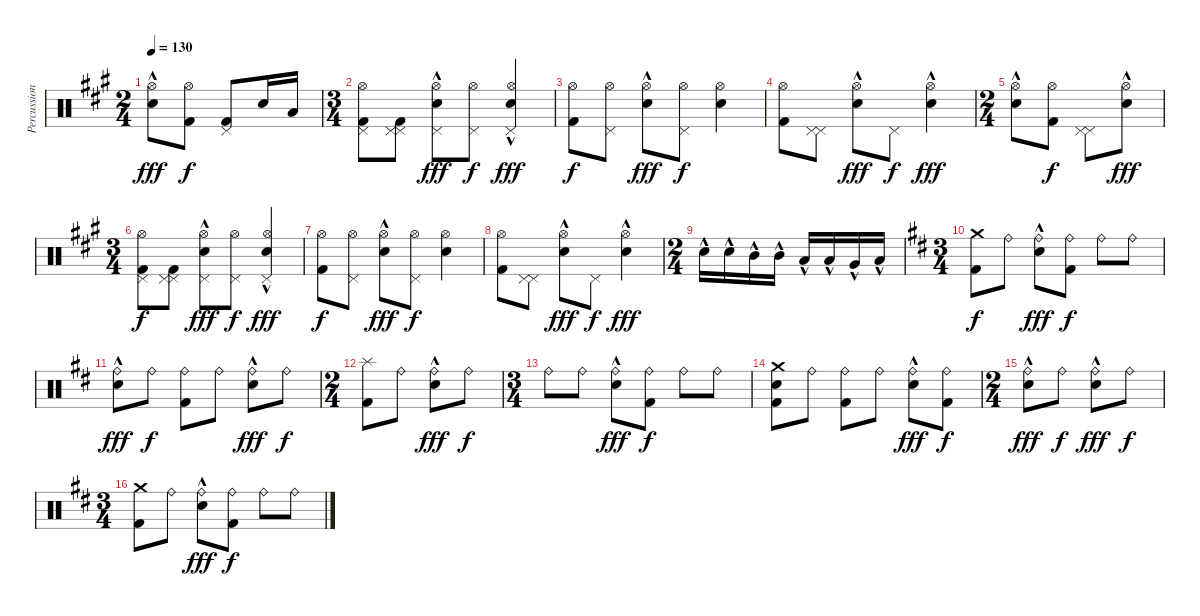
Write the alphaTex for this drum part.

\track ("Percussion" "Percussion") {instrument percussion bank 110}
\staff {score}
\articulation defaults
\ts (2 4)
\tempo 130
\clef neutral
\ks a
("Electric Snare (hit)"{hac} "Hi-Hat (open)").8{dy fff} ("Kick (hit) 2" "Hi-Hat (open)").8{dy f} ("Kick (hit) 2" "Pedal Hi-Hat (hit)").8 "Electric Snare (hit)".16 "Low Tom (hit)".16 |
\ts (3 4)
("Hi-Hat (open)" "Kick (hit) 2" "Pedal Hi-Hat (hit)").8 ("Pedal Hi-Hat (hit)" "Pedal Hi-Hat (hit)" "Kick (hit) 2").8 ("Hi-Hat (open)" "Electric Snare (hit)"{hac} "Pedal Hi-Hat (hit)").8{dy fff} ("Hi-Hat (open)" "Pedal Hi-Hat (hit)").8{dy f} ("Hi-Hat (open)" "Electric Snare (hit)"{hac} "Pedal Hi-Hat (hit)"{hac}).4{dy fff} |
("Hi-Hat (open)" "Kick (hit) 2").8{dy f} ("Pedal Hi-Hat (hit)" "Hi-Hat (open)").8 ("Electric Snare (hit)"{hac} "Hi-Hat (open)").8{dy fff} ("Pedal Hi-Hat (hit)" "Hi-Hat (open)").8{dy f} ("Hi-Hat (open)" "Electric Snare (hit)").4 |
("Hi-Hat (open)" "Kick (hit) 2").8 ("Pedal Hi-Hat (hit)" "Pedal Hi-Hat (hit)").8 ("Hi-Hat (open)" "Electric Snare (hit)"{hac}).8{dy fff} "Pedal Hi-Hat (hit)".8{dy f} ("Hi-Hat (open)" "Electric Snare (hit)"{hac}).4{dy fff} |
\ts (2 4)
("Electric Snare (hit)"{hac} "Hi-Hat (open)").8 ("Kick (hit) 2" "Hi-Hat (open)").8{dy f} ("Pedal Hi-Hat (hit)" "Pedal Hi-Hat (hit)").8 ("Electric Snare (hit)"{hac} "Hi-Hat (open)").8{dy fff} |
\ts (3 4)
("Hi-Hat (open)" "Kick (hit) 2" "Pedal Hi-Hat (hit)").8{dy f} ("Pedal Hi-Hat (hit)" "Pedal Hi-Hat (hit)" "Kick (hit) 2").8 ("Hi-Hat (open)" "Electric Snare (hit)"{hac} "Pedal Hi-Hat (hit)").8{dy fff} ("Hi-Hat (open)" "Pedal Hi-Hat (hit)").8{dy f} ("Hi-Hat (open)" "Electric Snare (hit)"{hac} "Pedal Hi-Hat (hit)"{hac}).4{dy fff} |
("Hi-Hat (open)" "Kick (hit) 2").8{dy f} ("Pedal Hi-Hat (hit)" "Hi-Hat (open)").8 ("Electric Snare (hit)"{hac} "Hi-Hat (open)").8{dy fff} ("Pedal Hi-Hat (hit)" "Hi-Hat (open)").8{dy f} ("Hi-Hat (open)" "Electric Snare (hit)").4 |
("Hi-Hat (open)" "Kick (hit) 2").8 ("Pedal Hi-Hat (hit)" "Pedal Hi-Hat (hit)").8 ("Hi-Hat (open)" "Electric Snare (hit)"{hac}).8{dy fff} "Pedal Hi-Hat (hit)".8{dy f} ("Hi-Hat (open)" "Electric Snare (hit)"{hac}).4{dy fff} |
\ts (2 4)
"Electric Snare (hit)"{hac}.16 "Electric Snare (hit)"{hac}.16 "Mid Tom (hit)"{hac}.16 "Mid Tom (hit)"{hac}.16 "Low Tom (hit)"{hac}.16 "Low Tom (hit)"{hac}.16 "Very Low Tom (hit)"{hac}.16 "Low Floor Tom (hit)"{hac}.16 |
\ts (3 4)
\ks d
("Crash medium (hit)" "Kick (hit) 2").8{dy f} "Ride (bell)".8 ("Ride (bell)" "Electric Snare (hit)"{hac}).8{dy fff} ("Ride (bell)" "Kick (hit) 2").8{dy f} "Ride (bell)".8 "Ride (bell)".8 |
("Ride (bell)" "Electric Snare (hit)"{hac}).8{dy fff} "Ride (bell)".8{dy f} ("Ride (bell)" "Kick (hit) 2").8 "Ride (bell)".8 ("Ride (bell)" "Electric Snare (hit)"{hac}).8{dy fff} "Ride (bell)".8{dy f} |
\ts (2 4)
("Splash (hit)" "Kick (hit) 2").8 "Ride (bell)".8 ("Ride (bell)" "Electric Snare (hit)"{hac}).8{dy fff} "Ride (bell)".8{dy f} |
\ts (3 4)
"Ride (bell)".8 "Ride (bell)".8 ("Ride (bell)" "Electric Snare (hit)"{hac}).8{dy fff} ("Ride (bell)" "Kick (hit) 2").8{dy f} "Ride (bell)".8 "Ride (bell)".8 |
("Crash medium (hit)" "Electric Snare (hit)" "Kick (hit) 2").8 "Ride (bell)".8 ("Ride (bell)" "Kick (hit) 2").8 "Ride (bell)".8 ("Ride (bell)" "Electric Snare (hit)"{hac}).8{dy fff} ("Ride (bell)" "Kick (hit) 2").8{dy f} |
\ts (2 4)
("Ride (bell)" "Electric Snare (hit)"{hac}).8{dy fff} "Ride (bell)".8{dy f} ("Ride (bell)" "Electric Snare (hit)"{hac}).8{dy fff} "Ride (bell)".8{dy f} |
\ts (3 4)
("Crash medium (hit)" "Kick (hit) 2").8 "Ride (bell)".8 ("Ride (bell)" "Electric Snare (hit)"{hac}).8{dy fff} ("Ride (bell)" "Kick (hit) 2").8{dy f} "Ride (bell)".8 "Ride (bell)".8
